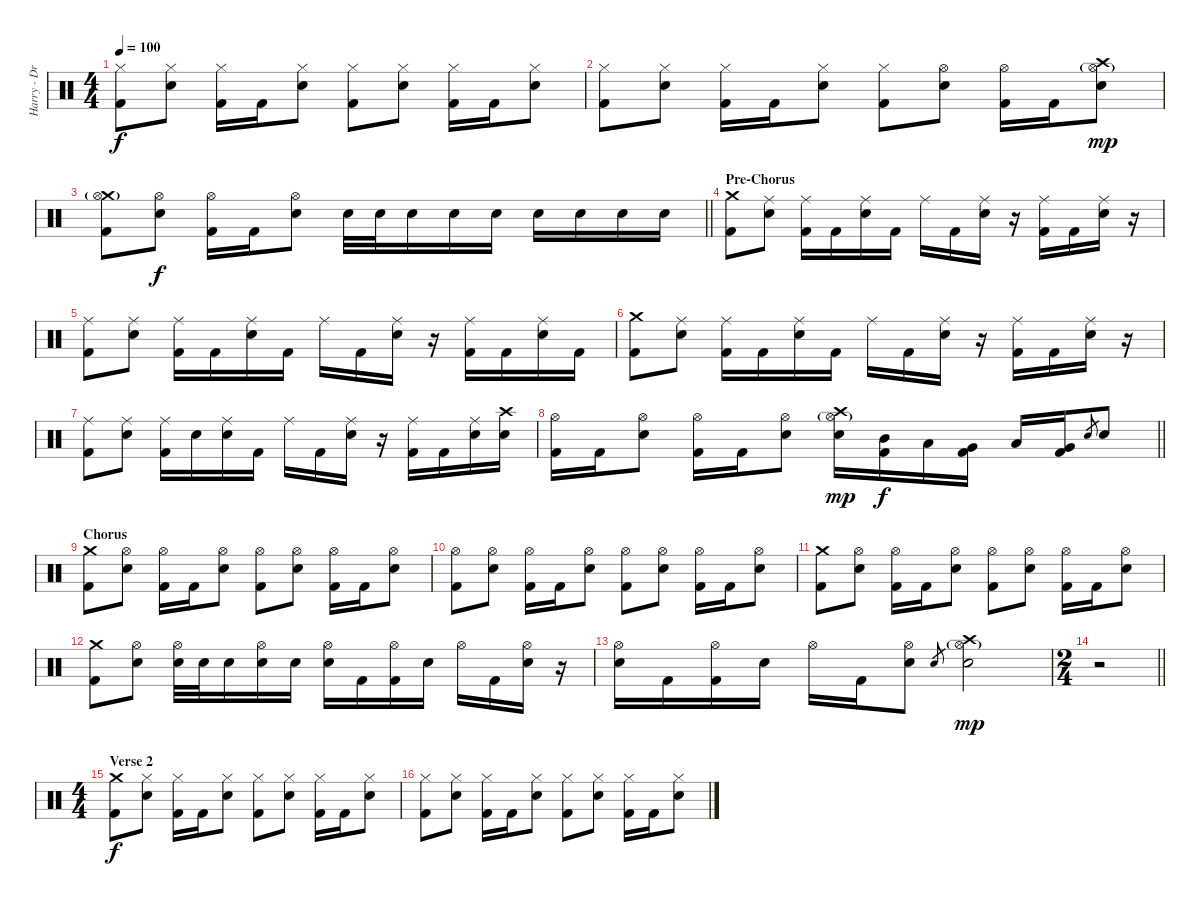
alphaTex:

\track ("Harry - Drums" "Harry - Dr") {instrument percussion}
\staff {score}
\articulation defaults
\ts (4 4)
\tempo 100
\clef neutral
\ks c
("Hi-Hat (closed)" "Kick (hit) 2").8{dy f} ("Hi-Hat (closed)" "Electric Snare (hit)").8 ("Hi-Hat (closed)" "Kick (hit) 2").16 "Kick (hit) 2".16 ("Hi-Hat (closed)" "Electric Snare (hit)").8 ("Hi-Hat (closed)" "Kick (hit) 2").8 ("Hi-Hat (closed)" "Electric Snare (hit)").8 ("Hi-Hat (closed)" "Kick (hit) 2").16 "Kick (hit) 2".16 ("Hi-Hat (closed)" "Electric Snare (hit)").8 |
("Hi-Hat (closed)" "Kick (hit) 2").8 ("Hi-Hat (closed)" "Electric Snare (hit)").8 ("Hi-Hat (closed)" "Kick (hit) 2").16 "Kick (hit) 2".16 ("Hi-Hat (closed)" "Electric Snare (hit)").8 ("Hi-Hat (closed)" "Kick (hit) 2").8 ("Hi-Hat (open)" "Electric Snare (hit)").8 ("Hi-Hat (open)" "Kick (hit) 2").16 "Kick (hit) 2".16 ("Crash high (hit)" "Hi-Hat (open)"{g} "Electric Snare (hit)").8{dy mp} |
\barLineRight lightlight
("Crash medium (hit)" "Hi-Hat (open)"{g} "Kick (hit) 2").8 ("Hi-Hat (open)" "Electric Snare (hit)").8{dy f} ("Hi-Hat (open)" "Kick (hit) 2").16 "Kick (hit) 2".16 ("Hi-Hat (open)" "Electric Snare (hit)").8 "Electric Snare (hit)".32 "Electric Snare (hit)".32 "Electric Snare (hit)".16 "Electric Snare (hit)".16 "Electric Snare (hit)".16 "Electric Snare (hit)".16 "Electric Snare (hit)".16 "Electric Snare (hit)".16 "Electric Snare (hit)".16 |
\section ("" "Pre-Chorus")
("Crash medium (hit)" "Kick (hit) 2").8 ("Ride (middle)" "Electric Snare (hit)").8 ("Ride (middle)" "Kick (hit) 2").16 "Kick (hit) 2".16 ("Ride (middle)" "Electric Snare (hit)").16 "Kick (hit) 2".16 "Ride (middle)".16 "Kick (hit) 2".16 ("Ride (middle)" "Electric Snare (hit)").16 r.16 ("Ride (middle)" "Kick (hit) 2").16 "Kick (hit) 2".16 ("Ride (middle)" "Electric Snare (hit)").16 r.16 |
("Ride (middle)" "Kick (hit) 2").8 ("Ride (middle)" "Electric Snare (hit)").8 ("Ride (middle)" "Kick (hit) 2").16 "Kick (hit) 2".16 ("Ride (middle)" "Electric Snare (hit)").16 "Kick (hit) 2".16 "Ride (middle)".16 "Kick (hit) 2".16 ("Ride (middle)" "Electric Snare (hit)").16 r.16 ("Ride (middle)" "Kick (hit) 2").16 "Kick (hit) 2".16 ("Ride (middle)" "Electric Snare (hit)").16 "Kick (hit) 2".16 |
("Crash medium (hit)" "Kick (hit) 2").8 ("Ride (middle)" "Electric Snare (hit)").8 ("Ride (middle)" "Kick (hit) 2").16 "Kick (hit) 2".16 ("Ride (middle)" "Electric Snare (hit)").16 "Kick (hit) 2".16 "Ride (middle)".16 "Kick (hit) 2".16 ("Ride (middle)" "Electric Snare (hit)").16 r.16 ("Ride (middle)" "Kick (hit) 2").16 "Kick (hit) 2".16 ("Ride (middle)" "Electric Snare (hit)").16 r.16 |
("Ride (middle)" "Kick (hit) 2").8 ("Ride (middle)" "Electric Snare (hit)").8 ("Ride (middle)" "Kick (hit) 2").16 "Electric Snare (hit)".16 ("Ride (middle)" "Electric Snare (hit)").16 "Kick (hit) 2".16 "Ride (middle)".16 "Kick (hit) 2".16 ("Ride (middle)" "Electric Snare (hit)").16 r.16 ("Ride (middle)" "Kick (hit) 2").16 "Kick (hit) 2".16 ("Ride (middle)" "Electric Snare (hit)").16 ("Crash high (hit)" "Electric Snare (hit)").16 |
\barLineRight lightlight
("Hi-Hat (open)" "Kick (hit) 2").16 "Kick (hit) 2".16 ("Hi-Hat (open)" "Electric Snare (hit)").8 ("Hi-Hat (open)" "Kick (hit) 2").16 "Kick (hit) 2".16 ("Hi-Hat (open)" "Electric Snare (hit)").8 ("Crash high (hit)" "Hi-Hat (open)"{g} "Electric Snare (hit)").16{dy mp} ("Mid Tom (hit)" "Kick (hit) 2").16{dy f} "Low Tom (hit)".16 ("Very Low Tom (hit)" "Kick (hit) 2").16 "Low Tom (hit)".16 ("Very Low Tom (hit)" "Kick (hit) 2").16 "Electric Snare (hit)".8{gr} "Electric Snare (hit)".8 |
\section ("" "Chorus")
("Crash medium (hit)" "Kick (hit) 2").8 ("Hi-Hat (open)" "Electric Snare (hit)").8 ("Hi-Hat (open)" "Kick (hit) 2").16 "Kick (hit) 2".16 ("Hi-Hat (open)" "Electric Snare (hit)").8 ("Hi-Hat (open)" "Kick (hit) 2").8 ("Hi-Hat (open)" "Electric Snare (hit)").8 ("Hi-Hat (open)" "Kick (hit) 2").16 "Kick (hit) 2".16 ("Hi-Hat (open)" "Electric Snare (hit)").8 |
("Hi-Hat (open)" "Kick (hit) 2").8 ("Hi-Hat (open)" "Electric Snare (hit)").8 ("Hi-Hat (open)" "Kick (hit) 2").16 "Kick (hit) 2".16 ("Hi-Hat (open)" "Electric Snare (hit)").8 ("Hi-Hat (open)" "Kick (hit) 2").8 ("Hi-Hat (open)" "Electric Snare (hit)").8 ("Hi-Hat (open)" "Kick (hit) 2").16 "Kick (hit) 2".16 ("Hi-Hat (open)" "Electric Snare (hit)").8 |
("Crash medium (hit)" "Kick (hit) 2").8 ("Hi-Hat (open)" "Electric Snare (hit)").8 ("Hi-Hat (open)" "Kick (hit) 2").16 "Kick (hit) 2".16 ("Hi-Hat (open)" "Electric Snare (hit)").8 ("Hi-Hat (open)" "Kick (hit) 2").8 ("Hi-Hat (open)" "Electric Snare (hit)").8 ("Hi-Hat (open)" "Kick (hit) 2").16 "Kick (hit) 2".16 ("Hi-Hat (open)" "Electric Snare (hit)").8 |
("Crash medium (hit)" "Kick (hit) 2").8 ("Hi-Hat (open)" "Electric Snare (hit)").8 ("Hi-Hat (open)" "Electric Snare (hit)").32 "Electric Snare (hit)".32 "Electric Snare (hit)".16 ("Hi-Hat (open)" "Electric Snare (hit)").16 "Electric Snare (hit)".16 ("Hi-Hat (open)" "Electric Snare (hit)").16 "Kick (hit) 2".16 ("Hi-Hat (open)" "Kick (hit) 2").16 "Electric Snare (hit)".16 "Hi-Hat (open)".16 "Kick (hit) 2".16 ("Hi-Hat (open)" "Electric Snare (hit)").16 r.16 |
("Hi-Hat (open)" "Electric Snare (hit)").16 "Kick (hit) 2".16 ("Hi-Hat (open)" "Kick (hit) 2").16 "Electric Snare (hit)".16 "Hi-Hat (open)".16 "Kick (hit) 2".16 ("Hi-Hat (open)" "Electric Snare (hit)").8 "Electric Snare (hit)".8{gr} ("Crash high (hit)" "Hi-Hat (open)"{g} "Electric Snare (hit)").2{dy mp} |
\ts (2 4)
\barLineRight lightlight
r.2 |
\ts (4 4)
\section ("" "Verse 2")
("Crash medium (hit)" "Kick (hit) 2").8{dy f} ("Hi-Hat (closed)" "Electric Snare (hit)").8 ("Hi-Hat (closed)" "Kick (hit) 2").16 "Kick (hit) 2".16 ("Hi-Hat (closed)" "Electric Snare (hit)").8 ("Hi-Hat (closed)" "Kick (hit) 2").8 ("Hi-Hat (closed)" "Electric Snare (hit)").8 ("Hi-Hat (closed)" "Kick (hit) 2").16 "Kick (hit) 2".16 ("Hi-Hat (closed)" "Electric Snare (hit)").8 |
("Hi-Hat (closed)" "Kick (hit) 2").8 ("Hi-Hat (closed)" "Electric Snare (hit)").8 ("Hi-Hat (closed)" "Kick (hit) 2").16 "Kick (hit) 2".16 ("Hi-Hat (closed)" "Electric Snare (hit)").8 ("Hi-Hat (closed)" "Kick (hit) 2").8 ("Hi-Hat (closed)" "Electric Snare (hit)").8 ("Hi-Hat (closed)" "Kick (hit) 2").16 "Kick (hit) 2".16 ("Hi-Hat (closed)" "Electric Snare (hit)").8
